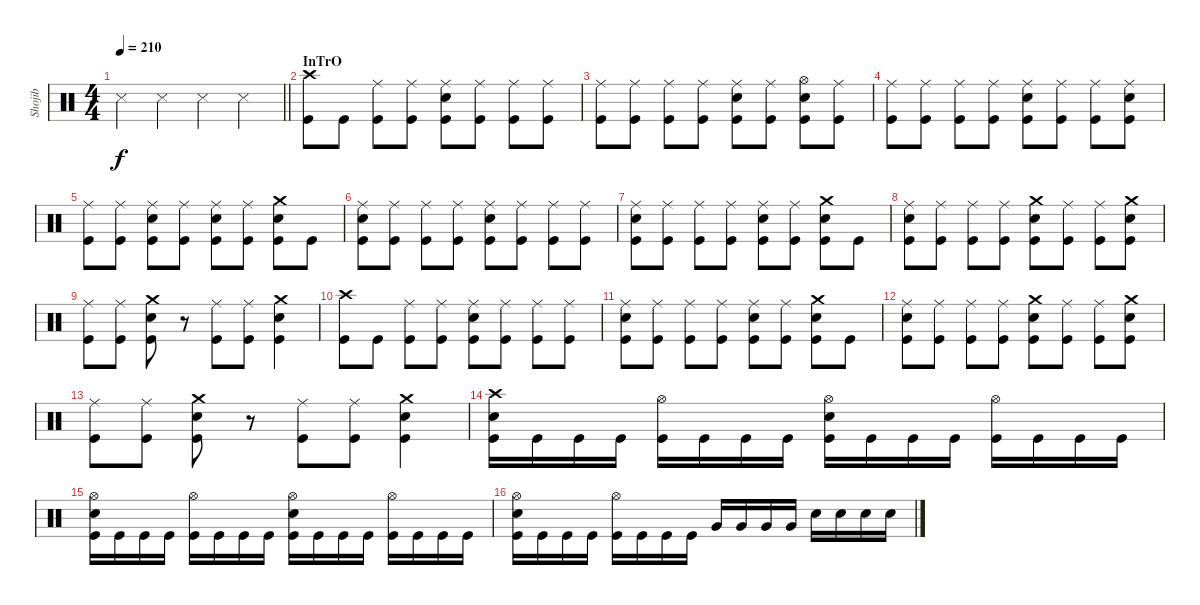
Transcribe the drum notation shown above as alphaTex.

\track ("Shojib" "Shojib") {instrument percussion}
\staff {score}
\articulation defaults
\ts (4 4)
\tempo 210
\clef neutral
\barLineRight lightlight
\ks c "Metronome (hit)".4{dy f} "Metronome (hit)".4 "Metronome (hit)".4 "Metronome (hit)".4
|
\section ("" "InTrO")
("Crash high (hit)" "Kick (hit)").8 "Kick (hit)".8 ("Ride (middle)" "Kick (hit)").8 ("Ride (middle)" "Kick (hit)").8 ("Ride (middle)" "Electric Snare (hit)" "Kick (hit)").8 ("Ride (middle)" "Kick (hit)").8 ("Ride (middle)" "Kick (hit)").8 ("Ride (middle)" "Kick (hit)").8 |
("Ride (middle)" "Kick (hit)").8 ("Ride (middle)" "Kick (hit)").8 ("Ride (middle)" "Kick (hit)").8 ("Ride (middle)" "Kick (hit)").8 ("Ride (middle)" "Electric Snare (hit)" "Kick (hit)").8 ("Ride (middle)" "Kick (hit)").8 ("Hi-Hat (open)" "Electric Snare (hit)" "Kick (hit)").8 ("Ride (middle)" "Kick (hit)").8 |
("Ride (middle)" "Kick (hit)").8 ("Ride (middle)" "Kick (hit)").8 ("Ride (middle)" "Kick (hit)").8 ("Ride (middle)" "Kick (hit)").8 ("Ride (middle)" "Electric Snare (hit)" "Kick (hit)").8 ("Ride (middle)" "Kick (hit)").8 ("Ride (middle)" "Kick (hit)").8 ("Ride (middle)" "Electric Snare (hit)" "Kick (hit)").8 |
("Ride (middle)" "Kick (hit)").8 ("Ride (middle)" "Kick (hit)").8 ("Ride (middle)" "Electric Snare (hit)" "Kick (hit)").8 ("Ride (middle)" "Kick (hit)").8 ("Ride (middle)" "Electric Snare (hit)" "Kick (hit)").8 ("Ride (middle)" "Kick (hit)").8 ("Crash medium (hit)" "Electric Snare (hit)" "Kick (hit)").8 "Kick (hit)".8 |
("Ride (middle)" "Electric Snare (hit)" "Kick (hit)").8 ("Ride (middle)" "Kick (hit)").8 ("Ride (middle)" "Kick (hit)").8 ("Ride (middle)" "Kick (hit)").8 ("Ride (middle)" "Electric Snare (hit)" "Kick (hit)").8 ("Ride (middle)" "Kick (hit)").8 ("Ride (middle)" "Kick (hit)").8 ("Ride (middle)" "Kick (hit)").8 |
("Ride (middle)" "Electric Snare (hit)" "Kick (hit)").8 ("Ride (middle)" "Kick (hit)").8 ("Ride (middle)" "Kick (hit)").8 ("Ride (middle)" "Kick (hit)").8 ("Ride (middle)" "Electric Snare (hit)" "Kick (hit)").8 ("Ride (middle)" "Kick (hit)").8 ("Crash medium (hit)" "Electric Snare (hit)" "Kick (hit)").8 "Kick (hit)".8 |
("Ride (middle)" "Electric Snare (hit)" "Kick (hit)").8 ("Ride (middle)" "Kick (hit)").8 ("Ride (middle)" "Kick (hit)").8 ("Ride (middle)" "Kick (hit)").8 ("Crash medium (hit)" "Electric Snare (hit)" "Kick (hit)").8 ("Ride (middle)" "Kick (hit)").8 ("Ride (middle)" "Kick (hit)").8 ("Crash medium (hit)" "Electric Snare (hit)" "Kick (hit)").8 |
("Ride (middle)" "Kick (hit)").8 ("Ride (middle)" "Kick (hit)").8 ("Crash medium (hit)" "Electric Snare (hit)" "Kick (hit)").8 r.8 ("Ride (middle)" "Kick (hit)").8 ("Ride (middle)" "Kick (hit)").8 ("Crash medium (hit)" "Electric Snare (hit)" "Kick (hit)").4 |
("Crash high (hit)" "Kick (hit)").8 "Kick (hit)".8 ("Ride (middle)" "Kick (hit)").8 ("Ride (middle)" "Kick (hit)").8 ("Ride (middle)" "Electric Snare (hit)" "Kick (hit)").8 ("Ride (middle)" "Kick (hit)").8 ("Ride (middle)" "Kick (hit)").8 ("Ride (middle)" "Kick (hit)").8 |
("Ride (middle)" "Electric Snare (hit)" "Kick (hit)").8 ("Ride (middle)" "Kick (hit)").8 ("Ride (middle)" "Kick (hit)").8 ("Ride (middle)" "Kick (hit)").8 ("Ride (middle)" "Electric Snare (hit)" "Kick (hit)").8 ("Ride (middle)" "Kick (hit)").8 ("Crash medium (hit)" "Electric Snare (hit)" "Kick (hit)").8 "Kick (hit)".8 |
("Ride (middle)" "Electric Snare (hit)" "Kick (hit)").8 ("Ride (middle)" "Kick (hit)").8 ("Ride (middle)" "Kick (hit)").8 ("Ride (middle)" "Kick (hit)").8 ("Crash medium (hit)" "Electric Snare (hit)" "Kick (hit)").8 ("Ride (middle)" "Kick (hit)").8 ("Ride (middle)" "Kick (hit)").8 ("Crash medium (hit)" "Electric Snare (hit)" "Kick (hit)").8 |
("Ride (middle)" "Kick (hit)").8 ("Ride (middle)" "Kick (hit)").8 ("Crash medium (hit)" "Electric Snare (hit)" "Kick (hit)").8 r.8 ("Ride (middle)" "Kick (hit)").8 ("Ride (middle)" "Kick (hit)").8 ("Crash medium (hit)" "Electric Snare (hit)" "Kick (hit)").4 |
("Crash high (hit)" "Electric Snare (hit)" "Kick (hit)").16 "Kick (hit)".16 "Kick (hit)".16 "Kick (hit)".16 ("Hi-Hat (open)" "Kick (hit)").16 "Kick (hit)".16 "Kick (hit)".16 "Kick (hit)".16 ("Hi-Hat (open)" "Electric Snare (hit)" "Kick (hit)").16 "Kick (hit)".16 "Kick (hit)".16 "Kick (hit)".16 ("Hi-Hat (open)" "Kick (hit)").16 "Kick (hit)".16 "Kick (hit)".16 "Kick (hit)".16 |
("Hi-Hat (open)" "Electric Snare (hit)" "Kick (hit)").16 "Kick (hit)".16 "Kick (hit)".16 "Kick (hit)".16 ("Hi-Hat (open)" "Kick (hit)").16 "Kick (hit)".16 "Kick (hit)".16 "Kick (hit)".16 ("Hi-Hat (open)" "Electric Snare (hit)" "Kick (hit)").16 "Kick (hit)".16 "Kick (hit)".16 "Kick (hit)".16 ("Hi-Hat (open)" "Kick (hit)").16 "Kick (hit)".16 "Kick (hit)".16 "Kick (hit)".16 |
("Hi-Hat (open)" "Electric Snare (hit)" "Kick (hit)").16 "Kick (hit)".16 "Kick (hit)".16 "Kick (hit)".16 ("Hi-Hat (open)" "Kick (hit)").16 "Kick (hit)".16 "Kick (hit)".16 "Kick (hit)".16 "Very Low Tom (hit)".16 "Very Low Tom (hit)".16 "Very Low Tom (hit)".16 "Very Low Tom (hit)".16 "Electric Snare (hit)".16 "Electric Snare (hit)".16 "Electric Snare (hit)".16 "Electric Snare (hit)".16
